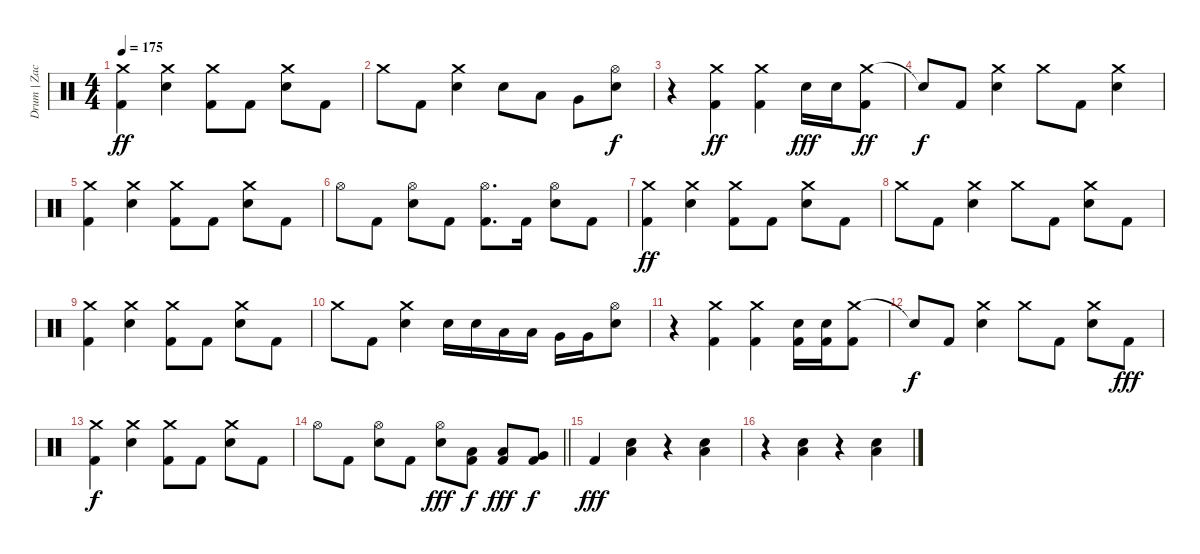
\track ("Drum | Zac" "Drum | Zac") {instrument percussion}
\staff {score}
\articulation defaults
\ts (4 4)
\tempo 175
\clef neutral
\ks c
("Crash medium (hit)" "Kick (hit) 2").4{dy ff} ("Crash medium (hit)" "Electric Snare (hit)").4 ("Crash medium (hit)" "Kick (hit) 2").8 "Kick (hit) 2".8 ("Crash medium (hit)" "Electric Snare (hit)").8 "Kick (hit) 2".8 |
"Crash medium (hit)".8 "Kick (hit) 2".8 ("Crash medium (hit)" "Electric Snare (hit)").4 "Electric Snare (hit)".8 "Low Tom (hit)".8 "Very Low Tom (hit)".8 ("Hi-Hat (open)" "Electric Snare (hit)").8{dy f} |
r.4 ("Crash medium (hit)" "Kick (hit) 2").4{dy ff} ("Crash medium (hit)" "Kick (hit) 2").4 "Electric Snare (hit)".16{dy fff} "Electric Snare (hit)".16 ("Crash medium (hit)" "Kick (hit) 2").8{dy ff} |
"Snare (hit)"{t}.8{dy f} "Kick (hit) 2".8 ("Crash medium (hit)" "Electric Snare (hit)").4 "Crash medium (hit)".8 "Kick (hit) 2".8 ("Crash medium (hit)" "Electric Snare (hit)").4 |
("Crash medium (hit)" "Kick (hit) 2").4 ("Crash medium (hit)" "Electric Snare (hit)").4 ("Crash medium (hit)" "Kick (hit) 2").8 "Kick (hit) 2".8 ("Crash medium (hit)" "Electric Snare (hit)").8 "Kick (hit) 2".8 |
"Hi-Hat (open)".8 "Kick (hit) 2".8 ("Hi-Hat (open)" "Electric Snare (hit)").8 "Kick (hit) 2".8 ("Hi-Hat (open)" "Kick (hit) 2").8{d} "Kick (hit) 2".16 ("Hi-Hat (open)" "Electric Snare (hit)").8 "Kick (hit) 2".8 |
("Crash medium (hit)" "Kick (hit) 2").4{dy ff} ("Crash medium (hit)" "Electric Snare (hit)").4 ("Crash medium (hit)" "Kick (hit) 2").8 "Kick (hit) 2".8 ("Crash medium (hit)" "Electric Snare (hit)").8 "Kick (hit) 2".8 |
"Crash medium (hit)".8 "Kick (hit) 2".8 ("Crash medium (hit)" "Electric Snare (hit)").4 "Crash medium (hit)".8 "Kick (hit) 2".8 ("Crash medium (hit)" "Electric Snare (hit)").8 "Kick (hit) 2".8 |
("Crash medium (hit)" "Kick (hit) 2").4 ("Crash medium (hit)" "Electric Snare (hit)").4 ("Crash medium (hit)" "Kick (hit) 2").8 "Kick (hit) 2".8 ("Crash medium (hit)" "Electric Snare (hit)").8 "Kick (hit) 2".8 |
"Crash medium (hit)".8 "Kick (hit) 2".8 ("Crash medium (hit)" "Electric Snare (hit)").4 "Electric Snare (hit)".16 "Electric Snare (hit)".16 "Low Floor Tom (hit)".16 "Low Floor Tom (hit)".16 "Very Low Tom (hit)".16 "Very Low Tom (hit)".16 ("Hi-Hat (open)" "Electric Snare (hit)").8 |
r.4 ("Crash medium (hit)" "Kick (hit) 2").4 ("Crash medium (hit)" "Kick (hit) 2").4 ("Electric Snare (hit)" "Kick (hit) 2").16 ("Electric Snare (hit)" "Kick (hit) 2").16 ("Crash medium (hit)" "Kick (hit) 2").8 |
"Snare (hit)"{t}.8{dy f} "Kick (hit) 2".8 ("Crash medium (hit)" "Electric Snare (hit)").4 "Crash medium (hit)".8 "Kick (hit) 2".8 ("Crash medium (hit)" "Electric Snare (hit)").8 "Kick (hit) 2".8{dy fff} |
("Crash medium (hit)" "Kick (hit) 2").4{dy f} ("Crash medium (hit)" "Electric Snare (hit)").4 ("Crash medium (hit)" "Kick (hit) 2").8 "Kick (hit) 2".8 ("Crash medium (hit)" "Electric Snare (hit)").8 "Kick (hit) 2".8 |
\barLineRight lightlight "Hi-Hat (open)".8 "Kick (hit) 2".8
("Hi-Hat (open)" "Electric Snare (hit)").8 "Kick (hit) 2".8 ("Hi-Hat (open)" "Electric Snare (hit)").8{dy fff} ("Low Tom (hit)" "Kick (hit) 2").8{dy f} ("Low Tom (hit)" "Kick (hit) 2").8{dy fff} ("Very Low Tom (hit)" "Kick (hit) 2").8{dy f} |
\section ("" "")
"Kick (hit) 2".4{dy fff} ("Low Floor Tom (hit)" "Electric Snare (hit)").4 r.4 ("Low Floor Tom (hit)" "Electric Snare (hit)").4 |
r.4 ("Low Floor Tom (hit)" "Electric Snare (hit)").4 r.4 ("Low Floor Tom (hit)" "Electric Snare (hit)").4
